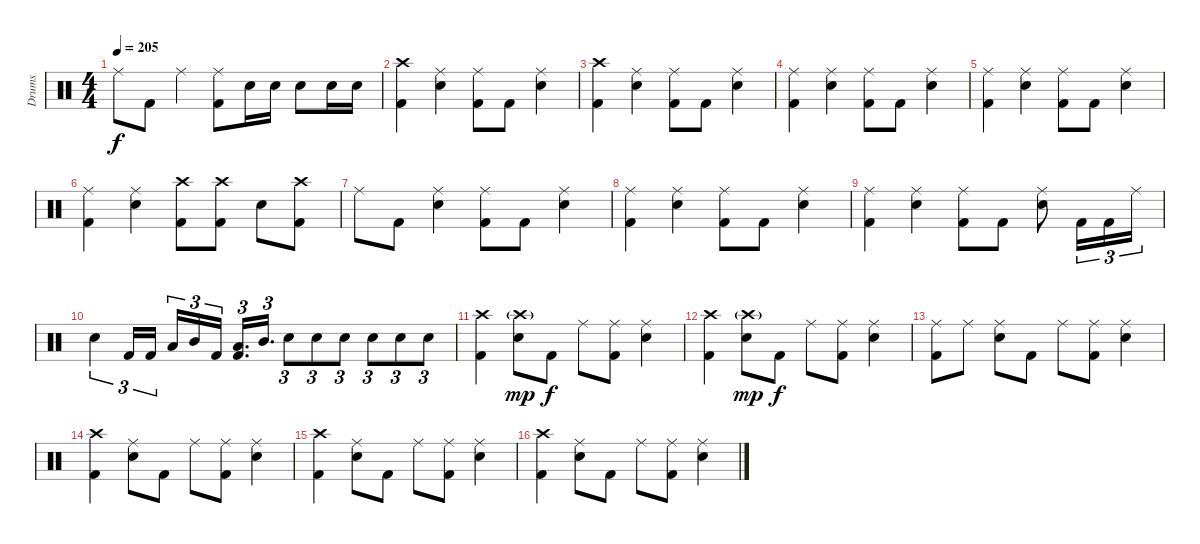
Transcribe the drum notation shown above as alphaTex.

\track ("Drums" "Drums") {instrument percussion}
\staff {score}
\articulation defaults
\ts (4 4)
\tempo 205
\clef neutral
\ks c "Ride (middle)".8{dy f} "Kick (hit) 2".8 "Ride (middle)".4
("Ride (middle)" "Kick (hit) 2").8 "Electric Snare (hit)".16 "Electric Snare (hit)".16 "Electric Snare (hit)".8 "Electric Snare (hit)".16 "Electric Snare (hit)".16 |
("Crash high (hit)" "Kick (hit) 2").4 ("Ride (middle)" "Electric Snare (hit)").4 ("Ride (middle)" "Kick (hit) 2").8 "Kick (hit) 2".8 ("Ride (middle)" "Electric Snare (hit)").4 |
("Crash high (hit)" "Kick (hit) 2").4 ("Ride (middle)" "Electric Snare (hit)").4 ("Ride (middle)" "Kick (hit) 2").8 "Kick (hit) 2".8 ("Ride (middle)" "Electric Snare (hit)").4 |
("Ride (middle)" "Kick (hit) 2").4 ("Ride (middle)" "Electric Snare (hit)").4 ("Ride (middle)" "Kick (hit) 2").8 "Kick (hit) 2".8 ("Ride (middle)" "Electric Snare (hit)").4 |
("Ride (middle)" "Kick (hit) 2").4 ("Ride (middle)" "Electric Snare (hit)").4 ("Ride (middle)" "Kick (hit) 2").8 "Kick (hit) 2".8 ("Ride (middle)" "Electric Snare (hit)").4 |
("Ride (middle)" "Kick (hit) 2").4 ("Ride (middle)" "Electric Snare (hit)").4 ("Crash high (hit)" "Kick (hit) 2").8 ("Crash high (hit)" "Kick (hit) 2").8 "Electric Snare (hit)".8 ("Crash high (hit)" "Kick (hit) 2").8 |
"Ride (middle)".8 "Kick (hit) 2".8 ("Ride (middle)" "Electric Snare (hit)").4 ("Ride (middle)" "Kick (hit) 2").8 "Kick (hit) 2".8 ("Ride (middle)" "Electric Snare (hit)").4 |
("Ride (middle)" "Kick (hit) 2").4 ("Ride (middle)" "Electric Snare (hit)").4 ("Ride (middle)" "Kick (hit) 2").8 "Kick (hit) 2".8 ("Ride (middle)" "Electric Snare (hit)").4 |
("Ride (middle)" "Kick (hit) 2").4 ("Ride (middle)" "Electric Snare (hit)").4 ("Ride (middle)" "Kick (hit) 2").8 "Kick (hit) 2".8 ("Ride (middle)" "Electric Snare (hit)").8 "Kick (hit) 2".16{tu (3 2)} "Kick (hit) 2".16{tu (3 2)} "Ride (middle)".16{tu (3 2)} |
"Electric Snare (hit)".4{tu (3 2)} "Kick (hit) 2".16{tu (3 2)} "Kick (hit) 2".16{tu (3 2)} "Low Tom (hit)".16{tu (3 2)} "Mid Tom (hit)".16{tu (3 2)} "Kick (hit) 2".16{tu (3 2) beam splitsecondary} ("Low Tom (hit)" "Kick (hit) 2").16{d tu (3 2)} "Mid Tom (hit)".16{d tu (3 2)} "Electric Snare (hit)".8{tu (3 2)} "Electric Snare (hit)".8{tu (3 2)} "Electric Snare (hit)".8{tu (3 2)} "Electric Snare (hit)".8{tu (3 2)} "Electric Snare (hit)".8{tu (3 2)} "Electric Snare (hit)".8{tu (3 2)} |
("Crash high (hit)" "Kick (hit) 2").4 ("Crash high (hit)"{g} "Electric Snare (hit)").8{dy mp} "Kick (hit) 2".8{dy f} "Ride (middle)".8 ("Ride (middle)" "Kick (hit) 2").8 ("Ride (middle)" "Electric Snare (hit)").4 |
("Crash high (hit)" "Kick (hit) 2").4 ("Crash high (hit)"{g} "Electric Snare (hit)").8{dy mp} "Kick (hit) 2".8{dy f} "Ride (middle)".8 ("Ride (middle)" "Kick (hit) 2").8 ("Ride (middle)" "Electric Snare (hit)").4 |
("Ride (middle)" "Kick (hit) 2").8 "Ride (middle)".8 ("Ride (middle)" "Electric Snare (hit)").8 "Kick (hit) 2".8 "Ride (middle)".8 ("Ride (middle)" "Kick (hit) 2").8 ("Ride (middle)" "Electric Snare (hit)").4 |
("Crash high (hit)" "Kick (hit) 2").4 ("Ride (middle)" "Electric Snare (hit)").8 "Kick (hit) 2".8 "Ride (middle)".8 ("Ride (middle)" "Kick (hit) 2").8 ("Ride (middle)" "Electric Snare (hit)").4 |
("Crash high (hit)" "Kick (hit) 2").4 ("Ride (middle)" "Electric Snare (hit)").8 "Kick (hit) 2".8 "Ride (middle)".8 ("Ride (middle)" "Kick (hit) 2").8 ("Ride (middle)" "Electric Snare (hit)").4 |
("Crash high (hit)" "Kick (hit) 2").4 ("Ride (middle)" "Electric Snare (hit)").8 "Kick (hit) 2".8 "Ride (middle)".8 ("Ride (middle)" "Kick (hit) 2").8 ("Ride (middle)" "Electric Snare (hit)").4
